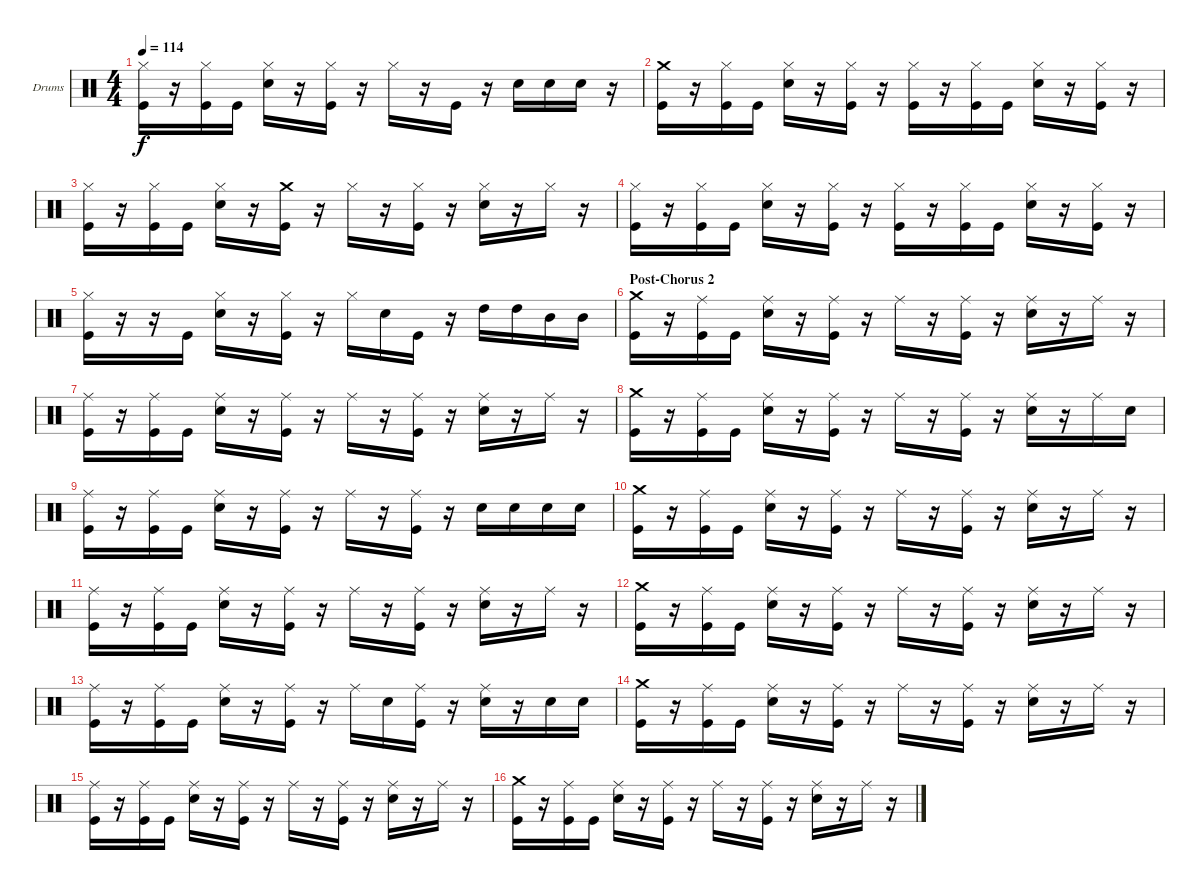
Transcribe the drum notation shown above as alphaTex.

\bracketExtendMode groupsimilarinstruments
\firstSystemTrackNameOrientation horizontal
\otherSystemsTrackNameOrientation horizontal
\track ("Drums" "Drums") {instrument percussion}
\staff {score}
\articulation defaults
\ts (4 4)
\tempo 114
\clef neutral
\ks c
("Hi-Hat (closed)" "Kick (hit)").16{dy f} r.16 ("Hi-Hat (closed)" "Kick (hit)").16 "Kick (hit)".16 ("Hi-Hat (closed)" "Snare (hit) 2").16 r.16 ("Hi-Hat (closed)" "Kick (hit)").16 r.16 "Hi-Hat (closed)".16 r.16 "Kick (hit)".16 r.16 "Snare (hit) 2".16 "Snare (hit) 2".16 "Snare (hit) 2".16 r.16 |
("Crash medium (hit)" "Kick (hit)").16 r.16 ("Hi-Hat (closed)" "Kick (hit)").16 "Kick (hit)".16 ("Hi-Hat (closed)" "Snare (hit) 2").16 r.16 ("Hi-Hat (closed)" "Kick (hit)").16 r.16 ("Hi-Hat (closed)" "Kick (hit)").16 r.16 ("Hi-Hat (closed)" "Kick (hit)").16 "Kick (hit)".16 ("Hi-Hat (closed)" "Snare (hit) 2").16 r.16 ("Hi-Hat (closed)" "Kick (hit)").16 r.16 |
("Hi-Hat (closed)" "Kick (hit)").16 r.16 ("Hi-Hat (closed)" "Kick (hit)").16 "Kick (hit)".16 ("Hi-Hat (closed)" "Snare (hit) 2").16 r.16 ("Crash medium (hit)" "Kick (hit)").16 r.16 "Hi-Hat (closed)".16 r.16 ("Hi-Hat (closed)" "Kick (hit)").16 r.16 ("Hi-Hat (closed)" "Snare (hit) 2").16 r.16 "Hi-Hat (closed)".16 r.16 |
("Hi-Hat (closed)" "Kick (hit)").16 r.16 ("Hi-Hat (closed)" "Kick (hit)").16 "Kick (hit)".16 ("Hi-Hat (closed)" "Snare (hit) 2").16 r.16 ("Hi-Hat (closed)" "Kick (hit)").16 r.16 ("Hi-Hat (closed)" "Kick (hit)").16 r.16 ("Hi-Hat (closed)" "Kick (hit)").16 "Kick (hit)".16 ("Hi-Hat (closed)" "Snare (hit) 2").16 r.16 ("Hi-Hat (closed)" "Kick (hit)").16 r.16 |
("Hi-Hat (closed)" "Kick (hit)").16 r.16 r.16 "Kick (hit)".16 ("Hi-Hat (closed)" "Snare (hit) 2").16 r.16 ("Hi-Hat (closed)" "Kick (hit)").16 r.16 "Hi-Hat (closed)".16 "Snare (hit) 2".16 "Kick (hit)".16 r.16 "High Tom (hit)".16 "High Tom (hit)".16 "Mid Tom (hit)".16 "Mid Tom (hit)".16 |
\section ("" "Post-Chorus 2")
("Crash medium (hit)" "Kick (hit)").16 r.16 ("Ride (middle)" "Kick (hit)").16 "Kick (hit)".16 ("Ride (middle)" "Snare (hit) 2").16 r.16 ("Ride (middle)" "Kick (hit)").16 r.16 "Ride (middle)".16 r.16 ("Ride (middle)" "Kick (hit)").16 r.16 ("Ride (middle)" "Snare (hit) 2").16 r.16 "Ride (middle)".16 r.16 |
("Ride (middle)" "Kick (hit)").16 r.16 ("Ride (middle)" "Kick (hit)").16 "Kick (hit)".16 ("Ride (middle)" "Snare (hit) 2").16 r.16 ("Ride (middle)" "Kick (hit)").16 r.16 "Ride (middle)".16 r.16 ("Ride (middle)" "Kick (hit)").16 r.16 ("Ride (middle)" "Snare (hit) 2").16 r.16 "Ride (middle)".16 r.16 |
("Crash medium (hit)" "Kick (hit)").16 r.16 ("Ride (middle)" "Kick (hit)").16 "Kick (hit)".16 ("Ride (middle)" "Snare (hit) 2").16 r.16 ("Ride (middle)" "Kick (hit)").16 r.16 "Ride (middle)".16 r.16 ("Ride (middle)" "Kick (hit)").16 r.16 ("Ride (middle)" "Snare (hit) 2").16 r.16 "Ride (middle)".16 "Snare (hit) 2".16 |
("Ride (middle)" "Kick (hit)").16 r.16 ("Ride (middle)" "Kick (hit)").16 "Kick (hit)".16 ("Ride (middle)" "Snare (hit) 2").16 r.16 ("Ride (middle)" "Kick (hit)").16 r.16 "Ride (middle)".16 r.16 ("Ride (middle)" "Kick (hit)").16 r.16 "Snare (hit) 2".16 "Snare (hit) 2".16 "Snare (hit) 2".16 "Snare (hit) 2".16 |
("Crash medium (hit)" "Kick (hit)").16 r.16 ("Ride (middle)" "Kick (hit)").16 "Kick (hit)".16 ("Ride (middle)" "Snare (hit) 2").16 r.16 ("Ride (middle)" "Kick (hit)").16 r.16 "Ride (middle)".16 r.16 ("Ride (middle)" "Kick (hit)").16 r.16 ("Ride (middle)" "Snare (hit) 2").16 r.16 "Ride (middle)".16 r.16 |
("Ride (middle)" "Kick (hit)").16 r.16 ("Ride (middle)" "Kick (hit)").16 "Kick (hit)".16 ("Ride (middle)" "Snare (hit) 2").16 r.16 ("Ride (middle)" "Kick (hit)").16 r.16 "Ride (middle)".16 r.16 ("Ride (middle)" "Kick (hit)").16 r.16 ("Ride (middle)" "Snare (hit) 2").16 r.16 "Ride (middle)".16 r.16 |
("Crash medium (hit)" "Kick (hit)").16 r.16 ("Ride (middle)" "Kick (hit)").16 "Kick (hit)".16 ("Ride (middle)" "Snare (hit) 2").16 r.16 ("Ride (middle)" "Kick (hit)").16 r.16 "Ride (middle)".16 r.16 ("Ride (middle)" "Kick (hit)").16 r.16 ("Ride (middle)" "Snare (hit) 2").16 r.16 "Ride (middle)".16 r.16 |
("Ride (middle)" "Kick (hit)").16 r.16 ("Ride (middle)" "Kick (hit)").16 "Kick (hit)".16 ("Ride (middle)" "Snare (hit) 2").16 r.16 ("Ride (middle)" "Kick (hit)").16 r.16 "Ride (middle)".16 "Snare (hit) 2".16 ("Ride (middle)" "Kick (hit)").16 r.16 ("Ride (middle)" "Snare (hit) 2").16 r.16 "Snare (hit) 2".16 "Snare (hit) 2".16 |
("Crash medium (hit)" "Kick (hit)").16 r.16 ("Ride (middle)" "Kick (hit)").16 "Kick (hit)".16 ("Ride (middle)" "Snare (hit) 2").16 r.16 ("Ride (middle)" "Kick (hit)").16 r.16 "Ride (middle)".16 r.16 ("Ride (middle)" "Kick (hit)").16 r.16 ("Ride (middle)" "Snare (hit) 2").16 r.16 "Ride (middle)".16 r.16 |
("Ride (middle)" "Kick (hit)").16 r.16 ("Ride (middle)" "Kick (hit)").16 "Kick (hit)".16 ("Ride (middle)" "Snare (hit) 2").16 r.16 ("Ride (middle)" "Kick (hit)").16 r.16 "Ride (middle)".16 r.16 ("Ride (middle)" "Kick (hit)").16 r.16 ("Ride (middle)" "Snare (hit) 2").16 r.16 "Ride (middle)".16 r.16 |
("Crash medium (hit)" "Kick (hit)").16 r.16 ("Ride (middle)" "Kick (hit)").16 "Kick (hit)".16 ("Ride (middle)" "Snare (hit) 2").16 r.16 ("Ride (middle)" "Kick (hit)").16 r.16 "Ride (middle)".16 r.16 ("Ride (middle)" "Kick (hit)").16 r.16 ("Ride (middle)" "Snare (hit) 2").16 r.16 "Ride (middle)".16 r.16
